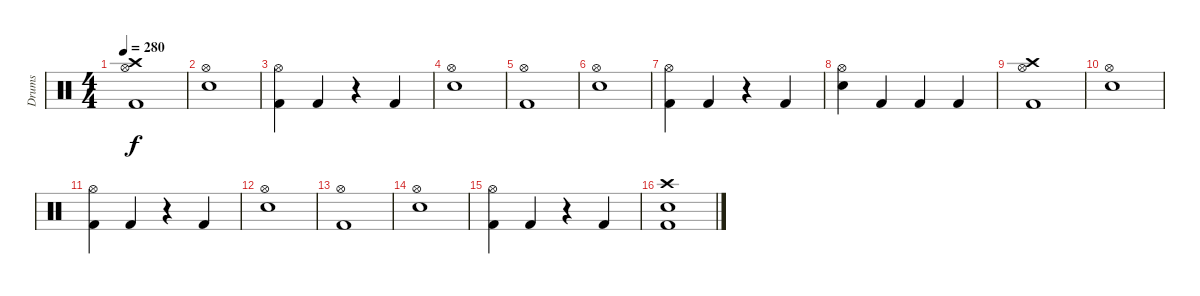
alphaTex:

\track ("Drums" "Drums") {instrument percussion}
\staff {score}
\articulation defaults
\ts (4 4)
\tempo 280
\clef neutral
\ks c
("Hi-Hat (open)" "Crash high (hit)" "Kick (hit) 2").1{dy f} |
("Hi-Hat (open)" "Electric Snare (hit)").1 |
("Hi-Hat (open)" "Kick (hit) 2").4 "Kick (hit) 2".4 r.4 "Kick (hit) 2".4 |
("Hi-Hat (open)" "Electric Snare (hit)").1 |
("Hi-Hat (open)" "Kick (hit) 2").1 |
("Hi-Hat (open)" "Electric Snare (hit)").1 |
("Hi-Hat (open)" "Kick (hit) 2").4 "Kick (hit) 2".4 r.4 "Kick (hit) 2".4 |
("Hi-Hat (open)" "Electric Snare (hit)").4 "Kick (hit) 2".4 "Kick (hit) 2".4 "Kick (hit) 2".4 |
("Hi-Hat (open)" "Crash high (hit)" "Kick (hit) 2").1 |
("Hi-Hat (open)" "Electric Snare (hit)").1 |
("Hi-Hat (open)" "Kick (hit) 2").4 "Kick (hit) 2".4 r.4 "Kick (hit) 2".4 |
("Hi-Hat (open)" "Electric Snare (hit)").1 |
("Hi-Hat (open)" "Kick (hit) 2").1 |
("Hi-Hat (open)" "Electric Snare (hit)").1 |
("Hi-Hat (open)" "Kick (hit) 2").4 "Kick (hit) 2".4 r.4 "Kick (hit) 2".4 |
("Crash high (hit)" "Electric Snare (hit)" "Kick (hit) 2").1
